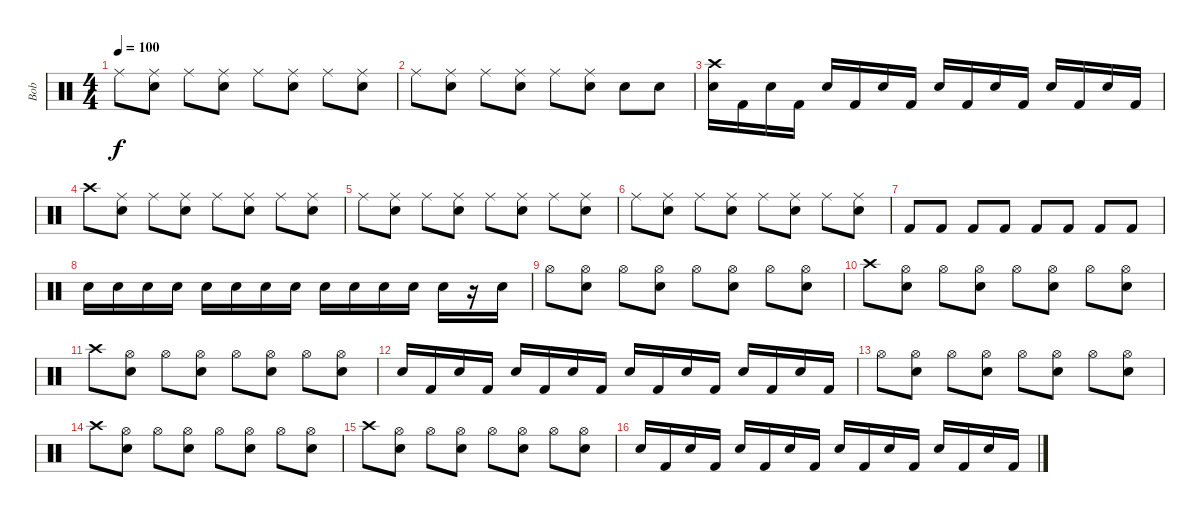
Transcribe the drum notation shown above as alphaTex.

\track ("Bob" "Bob") {instrument percussion}
\staff {score}
\articulation defaults
\ts (4 4)
\tempo 100
\clef neutral
\ks c "Ride (middle)".8{dy f}
("Ride (middle)" "Snare (hit) 2").8 "Ride (middle)".8 ("Ride (middle)" "Snare (hit) 2").8 "Ride (middle)".8 ("Ride (middle)" "Snare (hit) 2").8 "Ride (middle)".8 ("Ride (middle)" "Snare (hit) 2").8 |
"Ride (middle)".8 ("Ride (middle)" "Snare (hit) 2").8 "Ride (middle)".8 ("Ride (middle)" "Snare (hit) 2").8 "Ride (middle)".8 ("Ride (middle)" "Snare (hit) 2").8 "Snare (hit) 2".8 "Snare (hit) 2".8 |
("Snare (hit) 2" "Crash high (hit)").16 "Kick (hit) 2".16 "Snare (hit) 2".16 "Kick (hit) 2".16 "Snare (hit) 2".16 "Kick (hit) 2".16 "Snare (hit) 2".16 "Kick (hit) 2".16 "Snare (hit) 2".16 "Kick (hit) 2".16 "Snare (hit) 2".16 "Kick (hit) 2".16 "Snare (hit) 2".16 "Kick (hit) 2".16 "Snare (hit) 2".16 "Kick (hit) 2".16 |
"Crash high (hit)".8 ("Ride (middle)" "Snare (hit) 2").8 "Ride (middle)".8 ("Ride (middle)" "Snare (hit) 2").8 "Ride (middle)".8 ("Ride (middle)" "Snare (hit) 2").8 "Ride (middle)".8 ("Ride (middle)" "Snare (hit) 2").8 |
"Ride (middle)".8 ("Ride (middle)" "Snare (hit) 2").8 "Ride (middle)".8 ("Ride (middle)" "Snare (hit) 2").8 "Ride (middle)".8 ("Ride (middle)" "Snare (hit) 2").8 "Ride (middle)".8 ("Ride (middle)" "Snare (hit) 2").8 |
"Ride (middle)".8 ("Ride (middle)" "Snare (hit) 2").8 "Ride (middle)".8 ("Ride (middle)" "Snare (hit) 2").8 "Ride (middle)".8 ("Ride (middle)" "Snare (hit) 2").8 "Ride (middle)".8 ("Ride (middle)" "Snare (hit) 2").8 |
"Kick (hit) 2".8 "Kick (hit) 2".8 "Kick (hit) 2".8 "Kick (hit) 2".8 "Kick (hit) 2".8 "Kick (hit) 2".8 "Kick (hit) 2".8 "Kick (hit) 2".8 |
"Snare (hit) 2".16 "Snare (hit) 2".16 "Snare (hit) 2".16 "Snare (hit) 2".16 "Snare (hit) 2".16 "Snare (hit) 2".16 "Snare (hit) 2".16 "Snare (hit) 2".16 "Snare (hit) 2".16 "Snare (hit) 2".16 "Snare (hit) 2".16 "Snare (hit) 2".16 "Snare (hit) 2".16 r.16 "Snare (hit) 2".16 |
"Hi-Hat (open)".8 ("Hi-Hat (open)" "Snare (hit) 2").8 "Hi-Hat (open)".8 ("Hi-Hat (open)" "Snare (hit) 2").8 "Hi-Hat (open)".8 ("Snare (hit) 2" "Hi-Hat (open)").8 "Hi-Hat (open)".8 ("Snare (hit) 2" "Hi-Hat (open)").8 |
"Crash high (hit)".8 ("Hi-Hat (open)" "Snare (hit) 2").8 "Hi-Hat (open)".8 ("Hi-Hat (open)" "Snare (hit) 2").8 "Hi-Hat (open)".8 ("Hi-Hat (open)" "Snare (hit) 2").8 "Hi-Hat (open)".8 ("Hi-Hat (open)" "Snare (hit) 2").8 |
"Crash high (hit)".8 ("Snare (hit) 2" "Hi-Hat (open)").8 "Hi-Hat (open)".8 ("Hi-Hat (open)" "Snare (hit) 2").8 "Hi-Hat (open)".8 ("Hi-Hat (open)" "Snare (hit) 2").8 "Hi-Hat (open)".8 ("Hi-Hat (open)" "Snare (hit) 2").8 |
"Snare (hit) 2".16 "Kick (hit) 2".16 "Snare (hit) 2".16 "Kick (hit) 2".16 "Snare (hit) 2".16 "Kick (hit) 2".16 "Snare (hit) 2".16 "Kick (hit) 2".16 "Snare (hit) 2".16 "Kick (hit) 2".16 "Snare (hit) 2".16 "Kick (hit) 2".16 "Snare (hit) 2".16 "Kick (hit) 2".16 "Snare (hit) 2".16 "Kick (hit) 2".16 |
"Hi-Hat (open)".8 ("Hi-Hat (open)" "Snare (hit) 2").8 "Hi-Hat (open)".8 ("Hi-Hat (open)" "Snare (hit) 2").8 "Hi-Hat (open)".8 ("Snare (hit) 2" "Hi-Hat (open)").8 "Hi-Hat (open)".8 ("Snare (hit) 2" "Hi-Hat (open)").8 |
"Crash high (hit)".8 ("Hi-Hat (open)" "Snare (hit) 2").8 "Hi-Hat (open)".8 ("Hi-Hat (open)" "Snare (hit) 2").8 "Hi-Hat (open)".8 ("Hi-Hat (open)" "Snare (hit) 2").8 "Hi-Hat (open)".8 ("Hi-Hat (open)" "Snare (hit) 2").8 |
"Crash high (hit)".8 ("Snare (hit) 2" "Hi-Hat (open)").8 "Hi-Hat (open)".8 ("Hi-Hat (open)" "Snare (hit) 2").8 "Hi-Hat (open)".8 ("Hi-Hat (open)" "Snare (hit) 2").8 "Hi-Hat (open)".8 ("Hi-Hat (open)" "Snare (hit) 2").8 |
"Snare (hit) 2".16 "Kick (hit) 2".16 "Snare (hit) 2".16 "Kick (hit) 2".16 "Snare (hit) 2".16 "Kick (hit) 2".16 "Snare (hit) 2".16 "Kick (hit) 2".16 "Snare (hit) 2".16 "Kick (hit) 2".16 "Snare (hit) 2".16 "Kick (hit) 2".16 "Snare (hit) 2".16 "Kick (hit) 2".16 "Snare (hit) 2".16 "Kick (hit) 2".16
